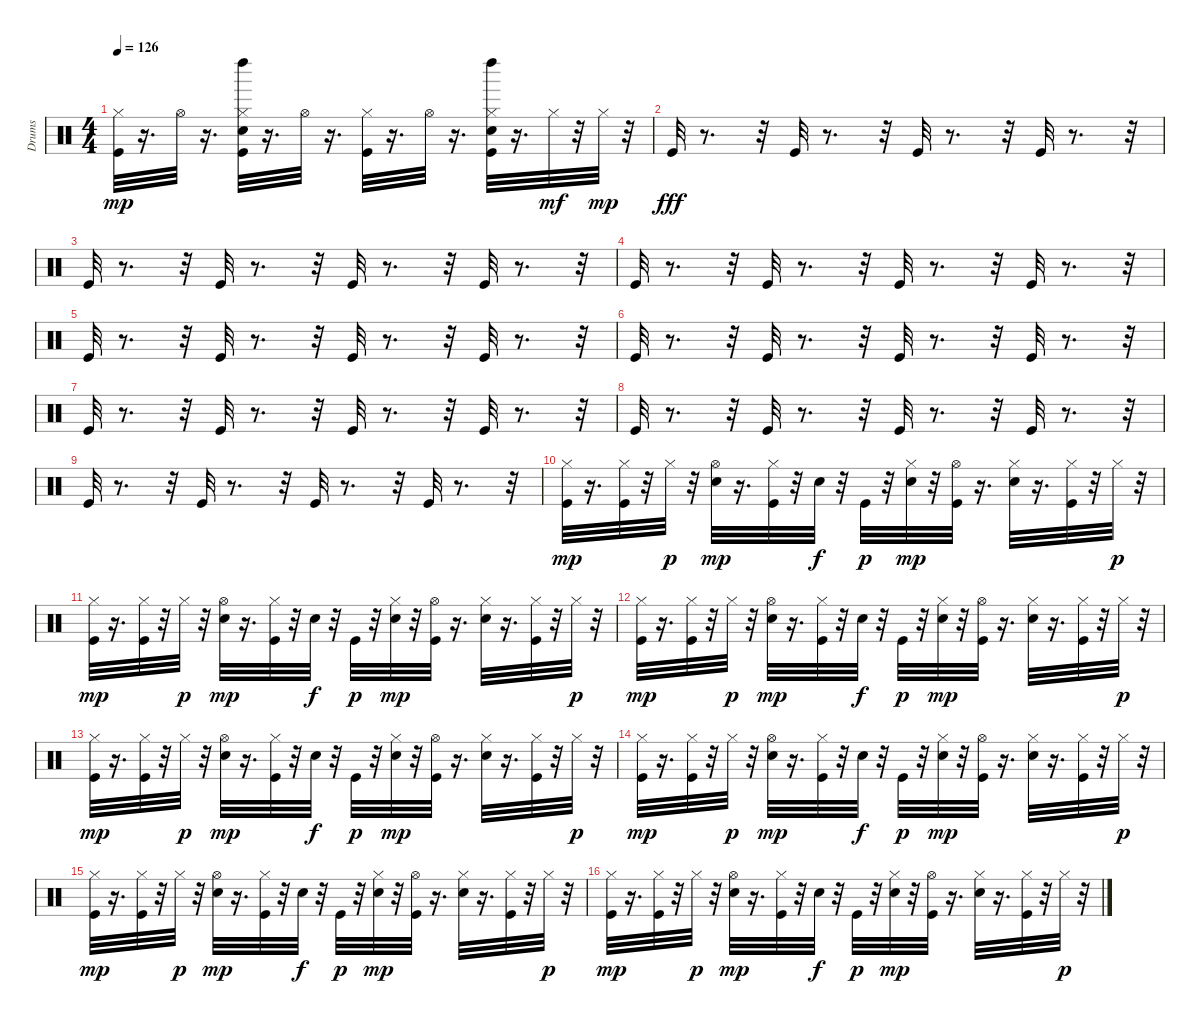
\track ("Drums" "Drums") {instrument percussion}
\staff {score}
\articulation defaults
\ts (4 4)
\tempo 126
\clef neutral
\ks c
("Kick (hit)" "Hi-Hat (closed)").32{dy mp} r.16{d} "Hi-Hat (open)".32 r.16{d} ("Kick (hit)" "Hand Clap (hit)" "Hi-Hat (closed)" "Left Maraca (hit)").32 r.16{d} "Hi-Hat (open)".32 r.16{d} ("Kick (hit)" "Hi-Hat (closed)").32 r.16{d} "Hi-Hat (open)".32 r.16{d} ("Kick (hit)" "Hand Clap (hit)" "Hi-Hat (closed)" "Left Maraca (hit)").32 r.16{d} "Hi-Hat (closed)".32{dy mf} r.32 "Hi-Hat (closed)".32{dy mp} r.32 |
"Kick (hit)".32{dy fff} r.8{d} r.32 "Kick (hit)".32 r.8{d} r.32 "Kick (hit)".32 r.8{d} r.32 "Kick (hit)".32 r.8{d} r.32 |
"Kick (hit)".32 r.8{d} r.32 "Kick (hit)".32 r.8{d} r.32 "Kick (hit)".32 r.8{d} r.32 "Kick (hit)".32 r.8{d} r.32 |
"Kick (hit)".32 r.8{d} r.32 "Kick (hit)".32 r.8{d} r.32 "Kick (hit)".32 r.8{d} r.32 "Kick (hit)".32 r.8{d} r.32 |
"Kick (hit)".32 r.8{d} r.32 "Kick (hit)".32 r.8{d} r.32 "Kick (hit)".32 r.8{d} r.32 "Kick (hit)".32 r.8{d} r.32 |
"Kick (hit)".32 r.8{d} r.32 "Kick (hit)".32 r.8{d} r.32 "Kick (hit)".32 r.8{d} r.32 "Kick (hit)".32 r.8{d} r.32 |
"Kick (hit)".32 r.8{d} r.32 "Kick (hit)".32 r.8{d} r.32 "Kick (hit)".32 r.8{d} r.32 "Kick (hit)".32 r.8{d} r.32 |
"Kick (hit)".32 r.8{d} r.32 "Kick (hit)".32 r.8{d} r.32 "Kick (hit)".32 r.8{d} r.32 "Kick (hit)".32 r.8{d} r.32 |
"Kick (hit)".32 r.8{d} r.32 "Kick (hit)".32 r.8{d} r.32 "Kick (hit)".32 r.8{d} r.32 "Kick (hit)".32 r.8{d} r.32 |
("Kick (hit)" "Hi-Hat (closed)").32{dy mp} r.16{d} ("Kick (hit)" "Hi-Hat (closed)").32 r.32 "Hi-Hat (closed)".32{dy p} r.32 ("Snare (hit) 2" "Hi-Hat (open)").32{dy mp} r.16{d} ("Kick (hit)" "Hi-Hat (closed)").32 r.32 "Snare (hit) 2".32{dy f} r.32 "Kick (hit)".32{dy p} r.32 ("Snare (hit) 2" "Hi-Hat (closed)").32{dy mp} r.32 ("Kick (hit)" "Hi-Hat (open)").32 r.16{d} ("Snare (hit) 2" "Hi-Hat (closed)").32 r.16{d} ("Kick (hit)" "Hi-Hat (closed)").32 r.32 "Hi-Hat (closed)".32{dy p} r.32 |
("Kick (hit)" "Hi-Hat (closed)").32{dy mp} r.16{d} ("Kick (hit)" "Hi-Hat (closed)").32 r.32 "Hi-Hat (closed)".32{dy p} r.32 ("Snare (hit) 2" "Hi-Hat (open)").32{dy mp} r.16{d} ("Kick (hit)" "Hi-Hat (closed)").32 r.32 "Snare (hit) 2".32{dy f} r.32 "Kick (hit)".32{dy p} r.32 ("Snare (hit) 2" "Hi-Hat (closed)").32{dy mp} r.32 ("Kick (hit)" "Hi-Hat (open)").32 r.16{d} ("Snare (hit) 2" "Hi-Hat (closed)").32 r.16{d} ("Kick (hit)" "Hi-Hat (closed)").32 r.32 "Hi-Hat (closed)".32{dy p} r.32 |
("Kick (hit)" "Hi-Hat (closed)").32{dy mp} r.16{d} ("Kick (hit)" "Hi-Hat (closed)").32 r.32 "Hi-Hat (closed)".32{dy p} r.32 ("Snare (hit) 2" "Hi-Hat (open)").32{dy mp} r.16{d} ("Kick (hit)" "Hi-Hat (closed)").32 r.32 "Snare (hit) 2".32{dy f} r.32 "Kick (hit)".32{dy p} r.32 ("Snare (hit) 2" "Hi-Hat (closed)").32{dy mp} r.32 ("Kick (hit)" "Hi-Hat (open)").32 r.16{d} ("Snare (hit) 2" "Hi-Hat (closed)").32 r.16{d} ("Kick (hit)" "Hi-Hat (closed)").32 r.32 "Hi-Hat (closed)".32{dy p} r.32 |
("Kick (hit)" "Hi-Hat (closed)").32{dy mp} r.16{d} ("Kick (hit)" "Hi-Hat (closed)").32 r.32 "Hi-Hat (closed)".32{dy p} r.32 ("Snare (hit) 2" "Hi-Hat (open)").32{dy mp} r.16{d} ("Kick (hit)" "Hi-Hat (closed)").32 r.32 "Snare (hit) 2".32{dy f} r.32 "Kick (hit)".32{dy p} r.32 ("Snare (hit) 2" "Hi-Hat (closed)").32{dy mp} r.32 ("Kick (hit)" "Hi-Hat (open)").32 r.16{d} ("Snare (hit) 2" "Hi-Hat (closed)").32 r.16{d} ("Kick (hit)" "Hi-Hat (closed)").32 r.32 "Hi-Hat (closed)".32{dy p} r.32 |
("Kick (hit)" "Hi-Hat (closed)").32{dy mp} r.16{d} ("Kick (hit)" "Hi-Hat (closed)").32 r.32 "Hi-Hat (closed)".32{dy p} r.32 ("Snare (hit) 2" "Hi-Hat (open)").32{dy mp} r.16{d} ("Kick (hit)" "Hi-Hat (closed)").32 r.32 "Snare (hit) 2".32{dy f} r.32 "Kick (hit)".32{dy p} r.32 ("Snare (hit) 2" "Hi-Hat (closed)").32{dy mp} r.32 ("Kick (hit)" "Hi-Hat (open)").32 r.16{d} ("Snare (hit) 2" "Hi-Hat (closed)").32 r.16{d} ("Kick (hit)" "Hi-Hat (closed)").32 r.32 "Hi-Hat (closed)".32{dy p} r.32 |
("Kick (hit)" "Hi-Hat (closed)").32{dy mp} r.16{d} ("Kick (hit)" "Hi-Hat (closed)").32 r.32 "Hi-Hat (closed)".32{dy p} r.32 ("Snare (hit) 2" "Hi-Hat (open)").32{dy mp} r.16{d} ("Kick (hit)" "Hi-Hat (closed)").32 r.32 "Snare (hit) 2".32{dy f} r.32 "Kick (hit)".32{dy p} r.32 ("Snare (hit) 2" "Hi-Hat (closed)").32{dy mp} r.32 ("Kick (hit)" "Hi-Hat (open)").32 r.16{d} ("Snare (hit) 2" "Hi-Hat (closed)").32 r.16{d} ("Kick (hit)" "Hi-Hat (closed)").32 r.32 "Hi-Hat (closed)".32{dy p} r.32 |
("Kick (hit)" "Hi-Hat (closed)").32{dy mp} r.16{d} ("Kick (hit)" "Hi-Hat (closed)").32 r.32 "Hi-Hat (closed)".32{dy p} r.32 ("Snare (hit) 2" "Hi-Hat (open)").32{dy mp} r.16{d} ("Kick (hit)" "Hi-Hat (closed)").32 r.32 "Snare (hit) 2".32{dy f} r.32 "Kick (hit)".32{dy p} r.32 ("Snare (hit) 2" "Hi-Hat (closed)").32{dy mp} r.32 ("Kick (hit)" "Hi-Hat (open)").32 r.16{d} ("Snare (hit) 2" "Hi-Hat (closed)").32 r.16{d} ("Kick (hit)" "Hi-Hat (closed)").32 r.32 "Hi-Hat (closed)".32{dy p} r.32
